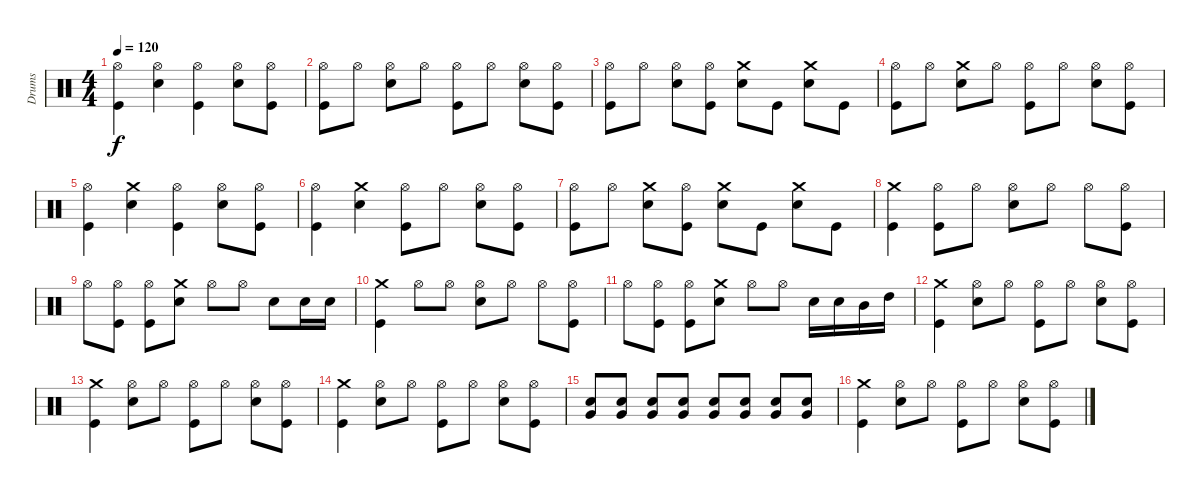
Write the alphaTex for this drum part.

\track ("Drums" "Drums") {instrument percussion}
\staff {score}
\articulation defaults
\ts (4 4)
\tempo 120
\clef neutral
\ks c
("Kick (hit)" "Hi-Hat (open)").4{dy f} ("Electric Snare (hit)" "Hi-Hat (open)").4 ("Kick (hit)" "Hi-Hat (open)").4 ("Electric Snare (hit)" "Hi-Hat (open)").8 ("Kick (hit)" "Hi-Hat (open)").8 |
("Kick (hit)" "Hi-Hat (open)").8 "Hi-Hat (open)".8 ("Electric Snare (hit)" "Hi-Hat (open)").8 "Hi-Hat (open)".8 ("Kick (hit)" "Hi-Hat (open)").8 "Hi-Hat (open)".8 ("Electric Snare (hit)" "Hi-Hat (open)").8 ("Kick (hit)" "Hi-Hat (open)").8 |
("Kick (hit)" "Hi-Hat (open)").8 "Hi-Hat (open)".8 ("Electric Snare (hit)" "Hi-Hat (open)").8 ("Kick (hit)" "Hi-Hat (open)").8 ("Electric Snare (hit)" "Crash medium (hit)").8 "Kick (hit)".8 ("Electric Snare (hit)" "Crash medium (hit)").8 "Kick (hit)".8 |
("Kick (hit)" "Hi-Hat (open)").8 "Hi-Hat (open)".8 ("Electric Snare (hit)" "Crash medium (hit)").8 "Hi-Hat (open)".8 ("Kick (hit)" "Hi-Hat (open)").8 "Hi-Hat (open)".8 ("Electric Snare (hit)" "Hi-Hat (open)").8 ("Kick (hit)" "Hi-Hat (open)").8 |
("Kick (hit)" "Hi-Hat (open)").4 ("Electric Snare (hit)" "Crash medium (hit)").4 ("Kick (hit)" "Hi-Hat (open)").4 ("Electric Snare (hit)" "Hi-Hat (open)").8 ("Kick (hit)" "Hi-Hat (open)").8 |
("Kick (hit)" "Hi-Hat (open)").4 ("Electric Snare (hit)" "Crash medium (hit)").4 ("Kick (hit)" "Hi-Hat (open)").8 "Hi-Hat (open)".8 ("Electric Snare (hit)" "Hi-Hat (open)").8 ("Kick (hit)" "Hi-Hat (open)").8 |
("Kick (hit)" "Hi-Hat (open)").8 "Hi-Hat (open)".8 ("Electric Snare (hit)" "Crash medium (hit)").8 ("Kick (hit)" "Hi-Hat (open)").8 ("Electric Snare (hit)" "Crash medium (hit)").8 "Kick (hit)".8 ("Electric Snare (hit)" "Crash medium (hit)").8 "Kick (hit)".8 |
("Kick (hit)" "Crash medium (hit)").4 ("Kick (hit)" "Hi-Hat (open)").8 "Hi-Hat (open)".8 ("Electric Snare (hit)" "Hi-Hat (open)").8 "Hi-Hat (open)".8 "Hi-Hat (open)".8 ("Kick (hit)" "Hi-Hat (open)").8 |
"Hi-Hat (open)".8 ("Kick (hit)" "Hi-Hat (open)").8 ("Kick (hit)" "Hi-Hat (open)").8 ("Electric Snare (hit)" "Crash medium (hit)").8 "Hi-Hat (open)".8 "Hi-Hat (open)".8 "Electric Snare (hit)".8 "Electric Snare (hit)".16 "Electric Snare (hit)".16 |
("Kick (hit)" "Crash medium (hit)").4 "Hi-Hat (open)".8 "Hi-Hat (open)".8 ("Electric Snare (hit)" "Hi-Hat (open)").8 "Hi-Hat (open)".8 "Hi-Hat (open)".8 ("Kick (hit)" "Hi-Hat (open)").8 |
"Hi-Hat (open)".8 ("Kick (hit)" "Hi-Hat (open)").8 ("Kick (hit)" "Hi-Hat (open)").8 ("Electric Snare (hit)" "Crash medium (hit)").8 "Hi-Hat (open)".8 "Hi-Hat (open)".8 "Electric Snare (hit)".16 "Electric Snare (hit)".16 "Mid Tom (hit)".16 "High Tom (hit)".16 |
("Kick (hit)" "Crash medium (hit)").4 ("Electric Snare (hit)" "Hi-Hat (open)").8 "Hi-Hat (open)".8 ("Kick (hit)" "Hi-Hat (open)").8 "Hi-Hat (open)".8 ("Electric Snare (hit)" "Hi-Hat (open)").8 ("Kick (hit)" "Hi-Hat (open)").8 |
("Kick (hit)" "Crash medium (hit)").4 ("Electric Snare (hit)" "Hi-Hat (open)").8 "Hi-Hat (open)".8 ("Kick (hit)" "Hi-Hat (open)").8 "Hi-Hat (open)".8 ("Electric Snare (hit)" "Hi-Hat (open)").8 ("Kick (hit)" "Hi-Hat (open)").8 |
("Kick (hit)" "Crash medium (hit)").4 ("Electric Snare (hit)" "Hi-Hat (open)").8 "Hi-Hat (open)".8 ("Kick (hit)" "Hi-Hat (open)").8 "Hi-Hat (open)".8 ("Electric Snare (hit)" "Hi-Hat (open)").8 ("Kick (hit)" "Hi-Hat (open)").8 |
("Electric Snare (hit)" "Very Low Tom (hit)").8 ("Electric Snare (hit)" "Very Low Tom (hit)").8 ("Electric Snare (hit)" "Very Low Tom (hit)").8 ("Electric Snare (hit)" "Very Low Tom (hit)").8 ("Electric Snare (hit)" "Very Low Tom (hit)").8 ("Electric Snare (hit)" "Very Low Tom (hit)").8 ("Electric Snare (hit)" "Very Low Tom (hit)").8 ("Electric Snare (hit)" "Very Low Tom (hit)").8 |
("Kick (hit)" "Crash medium (hit)").4 ("Electric Snare (hit)" "Hi-Hat (open)").8 "Hi-Hat (open)".8 ("Kick (hit)" "Hi-Hat (open)").8 "Hi-Hat (open)".8 ("Electric Snare (hit)" "Hi-Hat (open)").8 ("Kick (hit)" "Hi-Hat (open)").8
